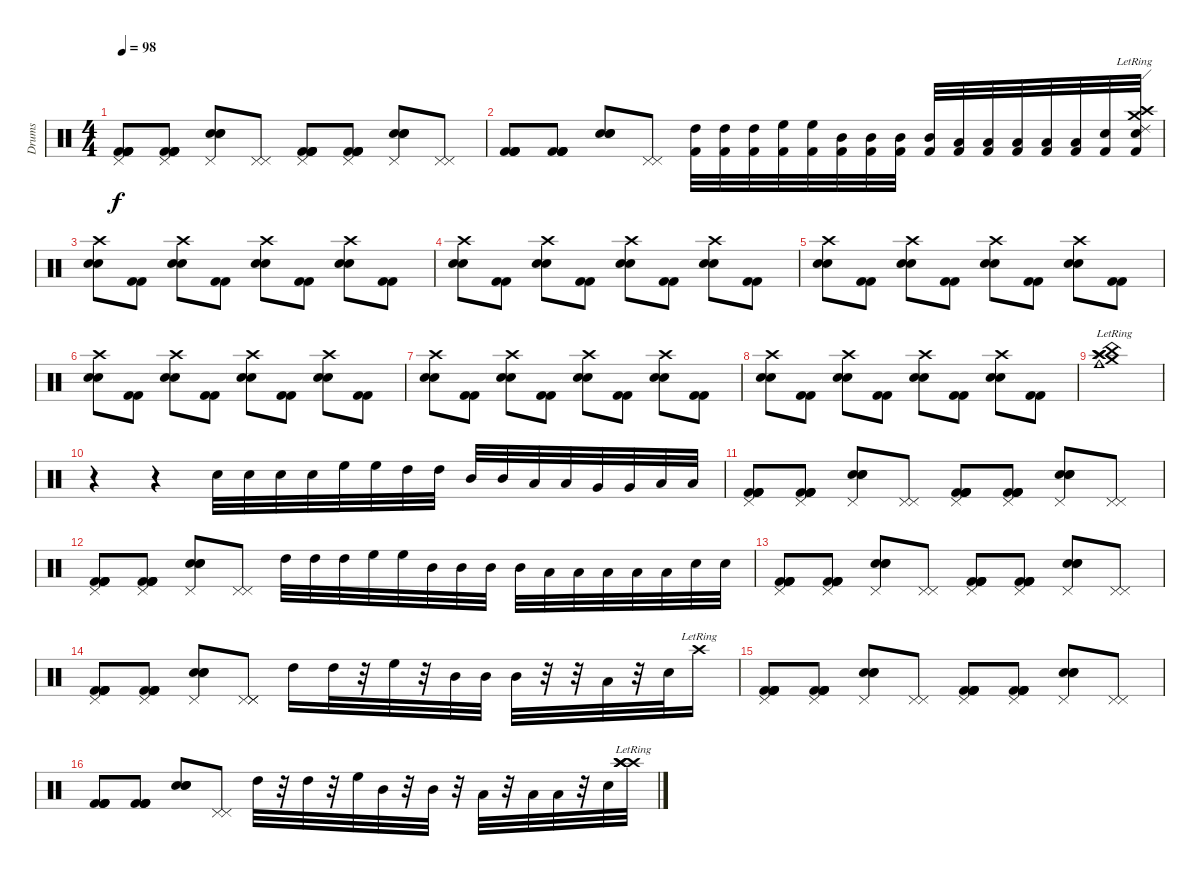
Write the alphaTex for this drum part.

\track ("Drums" "Drums") {instrument percussion}
\staff {score}
\articulation defaults
\ts (4 4)
\tempo 98
\clef neutral
\ks c
("Pedal Hi-Hat (hit)" "Kick (hit) 2" "Kick (hit) 2" "Kick (hit) 2" "Kick (hit) 2").8{dy f} ("Pedal Hi-Hat (hit)" "Kick (hit) 2" "Kick (hit) 2" "Kick (hit) 2" "Kick (hit) 2").8 ("Pedal Hi-Hat (hit)" "Electric Snare (hit)" "Electric Snare (hit)" "Electric Snare (hit)").8 ("Pedal Hi-Hat (hit)" "Pedal Hi-Hat (hit)").8 ("Pedal Hi-Hat (hit)" "Kick (hit) 2" "Kick (hit) 2" "Kick (hit) 2" "Kick (hit) 2").8 ("Pedal Hi-Hat (hit)" "Kick (hit) 2" "Kick (hit) 2" "Kick (hit) 2" "Kick (hit) 2").8 ("Pedal Hi-Hat (hit)" "Electric Snare (hit)" "Electric Snare (hit)" "Electric Snare (hit)").8 ("Pedal Hi-Hat (hit)" "Pedal Hi-Hat (hit)").8 |
("Kick (hit) 2" "Kick (hit) 2" "Kick (hit) 2" "Kick (hit) 2").8 ("Kick (hit) 2" "Kick (hit) 2" "Kick (hit) 2" "Kick (hit) 2").8 ("Electric Snare (hit)" "Electric Snare (hit)" "Electric Snare (hit)").8 ("Pedal Hi-Hat (hit)" "Pedal Hi-Hat (hit)").8 ("Kick (hit) 2" "High Tom (hit)").32 ("Kick (hit) 2" "High Tom (hit)").32 ("Kick (hit) 2" "High Tom (hit)").32 ("Kick (hit) 2" "High Floor Tom (hit)").32 ("Kick (hit) 2" "High Floor Tom (hit)").32 ("Kick (hit) 2" "Mid Tom (hit)").32 ("Kick (hit) 2" "Mid Tom (hit)").32 ("Kick (hit) 2" "Mid Tom (hit)").32 ("Kick (hit) 2" "Mid Tom (hit)").32 ("Kick (hit) 2" "Low Tom (hit)").32 ("Kick (hit) 2" "Low Tom (hit)").32 ("Kick (hit) 2" "Low Tom (hit)").32 ("Kick (hit) 2" "Low Floor Tom (hit)").32 ("Kick (hit) 2" "Low Floor Tom (hit)").32 ("Kick (hit) 2" "Electric Snare (hit)").32 ("Kick (hit) 2"{lr} "Electric Snare (hit)"{lr} "Crash high (hit)"{lr} "Crash medium (hit)"{lr} "Ride (edge) 2"{lr}).32 |
("Crash high (hit)" "Electric Snare (hit)" "Electric Snare (hit)").8 ("Kick (hit) 2" "Kick (hit) 2").8 ("Crash high (hit)" "Electric Snare (hit)" "Electric Snare (hit)").8 ("Kick (hit) 2" "Kick (hit) 2").8 ("Crash high (hit)" "Electric Snare (hit)" "Electric Snare (hit)").8 ("Kick (hit) 2" "Kick (hit) 2").8 ("Crash high (hit)" "Electric Snare (hit)" "Electric Snare (hit)").8 ("Kick (hit) 2" "Kick (hit) 2").8 |
("Crash high (hit)" "Electric Snare (hit)" "Electric Snare (hit)").8 ("Kick (hit) 2" "Kick (hit) 2").8 ("Crash high (hit)" "Electric Snare (hit)" "Electric Snare (hit)").8 ("Kick (hit) 2" "Kick (hit) 2").8 ("Crash high (hit)" "Electric Snare (hit)" "Electric Snare (hit)").8 ("Kick (hit) 2" "Kick (hit) 2").8 ("Crash high (hit)" "Electric Snare (hit)" "Electric Snare (hit)").8 ("Kick (hit) 2" "Kick (hit) 2").8 |
("Crash high (hit)" "Electric Snare (hit)" "Electric Snare (hit)").8 ("Kick (hit) 2" "Kick (hit) 2").8 ("Crash high (hit)" "Electric Snare (hit)" "Electric Snare (hit)").8 ("Kick (hit) 2" "Kick (hit) 2").8 ("Crash high (hit)" "Electric Snare (hit)" "Electric Snare (hit)").8 ("Kick (hit) 2" "Kick (hit) 2").8 ("Crash high (hit)" "Electric Snare (hit)" "Electric Snare (hit)").8 ("Kick (hit) 2" "Kick (hit) 2").8 |
("Crash high (hit)" "Electric Snare (hit)" "Electric Snare (hit)").8 ("Kick (hit) 2" "Kick (hit) 2").8 ("Crash high (hit)" "Electric Snare (hit)" "Electric Snare (hit)").8 ("Kick (hit) 2" "Kick (hit) 2").8 ("Crash high (hit)" "Electric Snare (hit)" "Electric Snare (hit)").8 ("Kick (hit) 2" "Kick (hit) 2").8 ("Crash high (hit)" "Electric Snare (hit)" "Electric Snare (hit)").8 ("Kick (hit) 2" "Kick (hit) 2").8 |
("Crash high (hit)" "Electric Snare (hit)" "Electric Snare (hit)").8 ("Kick (hit) 2" "Kick (hit) 2").8 ("Crash high (hit)" "Electric Snare (hit)" "Electric Snare (hit)").8 ("Kick (hit) 2" "Kick (hit) 2").8 ("Crash high (hit)" "Electric Snare (hit)" "Electric Snare (hit)").8 ("Kick (hit) 2" "Kick (hit) 2").8 ("Crash high (hit)" "Electric Snare (hit)" "Electric Snare (hit)").8 ("Kick (hit) 2" "Kick (hit) 2").8 |
("Crash high (hit)" "Electric Snare (hit)" "Electric Snare (hit)").8 ("Kick (hit) 2" "Kick (hit) 2").8 ("Crash high (hit)" "Electric Snare (hit)" "Electric Snare (hit)").8 ("Kick (hit) 2" "Kick (hit) 2").8 ("Crash high (hit)" "Electric Snare (hit)" "Electric Snare (hit)").8 ("Kick (hit) 2" "Kick (hit) 2").8 ("Crash high (hit)" "Electric Snare (hit)" "Electric Snare (hit)").8 ("Kick (hit) 2" "Kick (hit) 2").8 |
("Cowbell medium (hit)"{lr} "Crash high (hit)"{lr} "Crash high (hit)"{lr} "Crash medium (hit)"{lr} "China (hit)"{lr} "Splash (hit)"{lr}).1 |
r.4{volume 11} r.4 "Electric Snare (hit)".32 "Electric Snare (hit)".32 "Electric Snare (hit)".32 "Electric Snare (hit)".32 "High Floor Tom (hit)".32 "High Floor Tom (hit)".32 "High Tom (hit)".32 "High Tom (hit)".32 "Mid Tom (hit)".32 "Mid Tom (hit)".32 "Low Tom (hit)".32 "Low Tom (hit)".32 "Very Low Tom (hit)".32 "Very Low Tom (hit)".32 "Low Floor Tom (hit)".32 "Low Floor Tom (hit)".32 |
("Pedal Hi-Hat (hit)" "Kick (hit) 2" "Kick (hit) 2" "Kick (hit) 2" "Kick (hit) 2").8 ("Pedal Hi-Hat (hit)" "Kick (hit) 2" "Kick (hit) 2" "Kick (hit) 2" "Kick (hit) 2").8 ("Pedal Hi-Hat (hit)" "Electric Snare (hit)" "Electric Snare (hit)" "Electric Snare (hit)").8 ("Pedal Hi-Hat (hit)" "Pedal Hi-Hat (hit)").8 ("Pedal Hi-Hat (hit)" "Kick (hit) 2" "Kick (hit) 2" "Kick (hit) 2" "Kick (hit) 2").8 ("Pedal Hi-Hat (hit)" "Kick (hit) 2" "Kick (hit) 2" "Kick (hit) 2" "Kick (hit) 2").8 ("Pedal Hi-Hat (hit)" "Electric Snare (hit)" "Electric Snare (hit)" "Electric Snare (hit)").8 ("Pedal Hi-Hat (hit)" "Pedal Hi-Hat (hit)").8 |
("Pedal Hi-Hat (hit)" "Kick (hit) 2" "Kick (hit) 2" "Kick (hit) 2" "Kick (hit) 2").8 ("Pedal Hi-Hat (hit)" "Kick (hit) 2" "Kick (hit) 2" "Kick (hit) 2" "Kick (hit) 2").8 ("Pedal Hi-Hat (hit)" "Electric Snare (hit)" "Electric Snare (hit)" "Electric Snare (hit)").8 ("Pedal Hi-Hat (hit)" "Pedal Hi-Hat (hit)").8 "High Tom (hit)".32 "High Tom (hit)".32 "High Tom (hit)".32 "High Floor Tom (hit)".32 "High Floor Tom (hit)".32 "Mid Tom (hit)".32 "Mid Tom (hit)".32 "Mid Tom (hit)".32 "Mid Tom (hit)".32 "Low Tom (hit)".32 "Low Tom (hit)".32 "Low Tom (hit)".32 "Low Floor Tom (hit)".32 "Low Floor Tom (hit)".32 "Electric Snare (hit)".32 "Electric Snare (hit)".32 |
("Pedal Hi-Hat (hit)" "Kick (hit) 2" "Kick (hit) 2" "Kick (hit) 2" "Kick (hit) 2").8 ("Pedal Hi-Hat (hit)" "Kick (hit) 2" "Kick (hit) 2" "Kick (hit) 2" "Kick (hit) 2").8 ("Pedal Hi-Hat (hit)" "Electric Snare (hit)" "Electric Snare (hit)" "Electric Snare (hit)").8 ("Pedal Hi-Hat (hit)" "Pedal Hi-Hat (hit)").8 ("Pedal Hi-Hat (hit)" "Kick (hit) 2" "Kick (hit) 2" "Kick (hit) 2" "Kick (hit) 2").8 ("Pedal Hi-Hat (hit)" "Kick (hit) 2" "Kick (hit) 2" "Kick (hit) 2" "Kick (hit) 2").8 ("Pedal Hi-Hat (hit)" "Electric Snare (hit)" "Electric Snare (hit)" "Electric Snare (hit)").8 ("Pedal Hi-Hat (hit)" "Pedal Hi-Hat (hit)").8 |
("Pedal Hi-Hat (hit)" "Kick (hit) 2" "Kick (hit) 2" "Kick (hit) 2" "Kick (hit) 2").8 ("Pedal Hi-Hat (hit)" "Kick (hit) 2" "Kick (hit) 2" "Kick (hit) 2" "Kick (hit) 2").8 ("Pedal Hi-Hat (hit)" "Electric Snare (hit)" "Electric Snare (hit)" "Electric Snare (hit)").8 ("Pedal Hi-Hat (hit)" "Pedal Hi-Hat (hit)" "Pedal Hi-Hat (hit)").8 "High Tom (hit)".16 "High Tom (hit)".32 r.32 "High Floor Tom (hit)".32 r.32 "Mid Tom (hit)".32 "Mid Tom (hit)".32 "Mid Tom (hit)".32 r.32 r.32 "Low Tom (hit)".32 r.32 "Electric Snare (hit)".32 "Crash high (hit)"{lr}.16 |
("Pedal Hi-Hat (hit)" "Kick (hit) 2" "Kick (hit) 2" "Kick (hit) 2" "Kick (hit) 2").8 ("Pedal Hi-Hat (hit)" "Kick (hit) 2" "Kick (hit) 2" "Kick (hit) 2" "Kick (hit) 2").8 ("Pedal Hi-Hat (hit)" "Electric Snare (hit)" "Electric Snare (hit)" "Electric Snare (hit)").8 ("Pedal Hi-Hat (hit)" "Pedal Hi-Hat (hit)").8 ("Pedal Hi-Hat (hit)" "Kick (hit) 2" "Kick (hit) 2" "Kick (hit) 2" "Kick (hit) 2").8 ("Pedal Hi-Hat (hit)" "Kick (hit) 2" "Kick (hit) 2" "Kick (hit) 2" "Kick (hit) 2").8 ("Pedal Hi-Hat (hit)" "Electric Snare (hit)" "Electric Snare (hit)" "Electric Snare (hit)").8 ("Pedal Hi-Hat (hit)" "Pedal Hi-Hat (hit)").8 |
("Kick (hit) 2" "Kick (hit) 2" "Kick (hit) 2" "Kick (hit) 2").8 ("Kick (hit) 2" "Kick (hit) 2" "Kick (hit) 2" "Kick (hit) 2").8 ("Electric Snare (hit)" "Electric Snare (hit)" "Electric Snare (hit)").8 ("Pedal Hi-Hat (hit)" "Pedal Hi-Hat (hit)").8 "High Tom (hit)".32 r.32 "High Tom (hit)".32 r.32 "High Floor Tom (hit)".32 "Mid Tom (hit)".32 r.32 "Mid Tom (hit)".32 r.32 "Low Tom (hit)".32 r.32 "Low Tom (hit)".32 "Low Floor Tom (hit)".32 r.32 "Electric Snare (hit)".32 ("Crash high (hit)"{lr} "Crash high (hit)"{lr} "Crash high (hit)"{lr} "Crash high (hit)"{lr}).32
